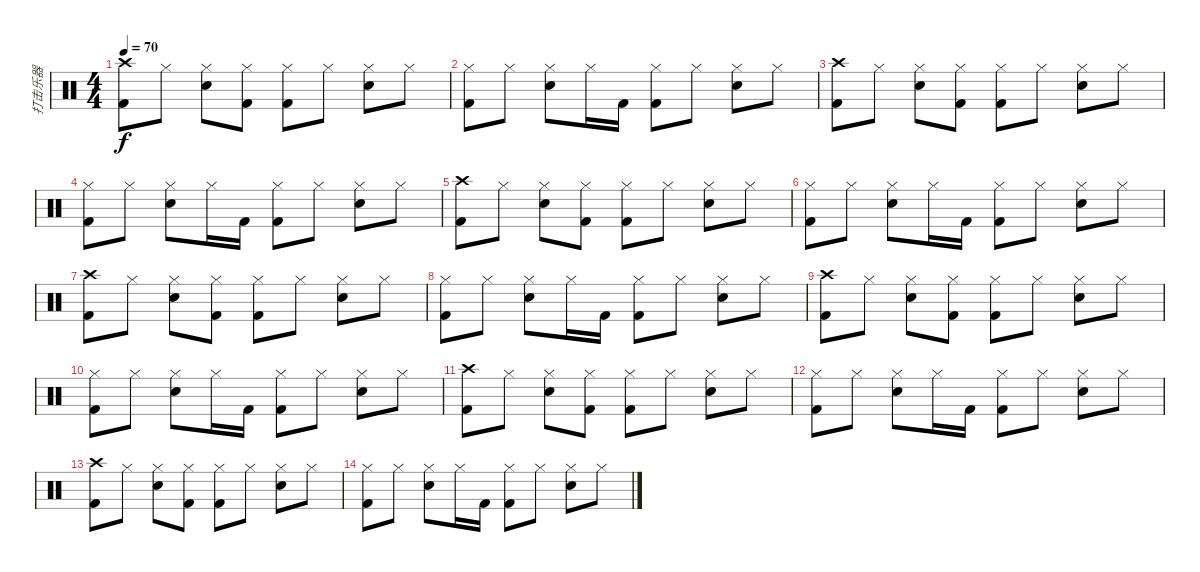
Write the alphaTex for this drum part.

\track ("打击乐器" "打击乐器") {instrument percussion}
\staff {score}
\articulation defaults
\ts (4 4)
\tempo 70
\clef neutral
\ks c
("Crash high (hit)" "Kick (hit) 2").8{dy f} "Hi-Hat (closed)".8 ("Hi-Hat (closed)" "Snare (hit) 2").8 ("Hi-Hat (closed)" "Kick (hit) 2").8 ("Hi-Hat (closed)" "Kick (hit) 2").8 "Hi-Hat (closed)".8 ("Hi-Hat (closed)" "Snare (hit) 2").8 "Hi-Hat (closed)".8 |
("Hi-Hat (closed)" "Kick (hit) 2").8 "Hi-Hat (closed)".8 ("Hi-Hat (closed)" "Snare (hit) 2").8 "Hi-Hat (closed)".16 "Kick (hit) 2".16 ("Hi-Hat (closed)" "Kick (hit) 2").8 "Hi-Hat (closed)".8 ("Hi-Hat (closed)" "Snare (hit) 2").8 "Hi-Hat (closed)".8 |
("Crash high (hit)" "Kick (hit) 2").8 "Hi-Hat (closed)".8 ("Hi-Hat (closed)" "Snare (hit) 2").8 ("Hi-Hat (closed)" "Kick (hit) 2").8 ("Hi-Hat (closed)" "Kick (hit) 2").8 "Hi-Hat (closed)".8 ("Hi-Hat (closed)" "Snare (hit) 2").8 "Hi-Hat (closed)".8 |
("Hi-Hat (closed)" "Kick (hit) 2").8 "Hi-Hat (closed)".8 ("Hi-Hat (closed)" "Snare (hit) 2").8 "Hi-Hat (closed)".16 "Kick (hit) 2".16 ("Hi-Hat (closed)" "Kick (hit) 2").8 "Hi-Hat (closed)".8 ("Hi-Hat (closed)" "Snare (hit) 2").8 "Hi-Hat (closed)".8 |
("Crash high (hit)" "Kick (hit) 2").8 "Hi-Hat (closed)".8 ("Hi-Hat (closed)" "Snare (hit) 2").8 ("Hi-Hat (closed)" "Kick (hit) 2").8 ("Hi-Hat (closed)" "Kick (hit) 2").8 "Hi-Hat (closed)".8 ("Hi-Hat (closed)" "Snare (hit) 2").8 "Hi-Hat (closed)".8 |
("Hi-Hat (closed)" "Kick (hit) 2").8 "Hi-Hat (closed)".8 ("Hi-Hat (closed)" "Snare (hit) 2").8 "Hi-Hat (closed)".16 "Kick (hit) 2".16 ("Hi-Hat (closed)" "Kick (hit) 2").8 "Hi-Hat (closed)".8 ("Hi-Hat (closed)" "Snare (hit) 2").8 "Hi-Hat (closed)".8 |
("Crash high (hit)" "Kick (hit) 2").8 "Hi-Hat (closed)".8 ("Hi-Hat (closed)" "Snare (hit) 2").8 ("Hi-Hat (closed)" "Kick (hit) 2").8 ("Hi-Hat (closed)" "Kick (hit) 2").8 "Hi-Hat (closed)".8 ("Hi-Hat (closed)" "Snare (hit) 2").8 "Hi-Hat (closed)".8 |
("Hi-Hat (closed)" "Kick (hit) 2").8 "Hi-Hat (closed)".8 ("Hi-Hat (closed)" "Snare (hit) 2").8 "Hi-Hat (closed)".16 "Kick (hit) 2".16 ("Hi-Hat (closed)" "Kick (hit) 2").8 "Hi-Hat (closed)".8 ("Hi-Hat (closed)" "Snare (hit) 2").8 "Hi-Hat (closed)".8 |
("Crash high (hit)" "Kick (hit) 2").8 "Hi-Hat (closed)".8 ("Hi-Hat (closed)" "Snare (hit) 2").8 ("Hi-Hat (closed)" "Kick (hit) 2").8 ("Hi-Hat (closed)" "Kick (hit) 2").8 "Hi-Hat (closed)".8 ("Hi-Hat (closed)" "Snare (hit) 2").8 "Hi-Hat (closed)".8 |
("Hi-Hat (closed)" "Kick (hit) 2").8 "Hi-Hat (closed)".8 ("Hi-Hat (closed)" "Snare (hit) 2").8 "Hi-Hat (closed)".16 "Kick (hit) 2".16 ("Hi-Hat (closed)" "Kick (hit) 2").8 "Hi-Hat (closed)".8 ("Hi-Hat (closed)" "Snare (hit) 2").8 "Hi-Hat (closed)".8 |
("Crash high (hit)" "Kick (hit) 2").8 "Hi-Hat (closed)".8 ("Hi-Hat (closed)" "Snare (hit) 2").8 ("Hi-Hat (closed)" "Kick (hit) 2").8 ("Hi-Hat (closed)" "Kick (hit) 2").8 "Hi-Hat (closed)".8 ("Hi-Hat (closed)" "Snare (hit) 2").8 "Hi-Hat (closed)".8 |
("Hi-Hat (closed)" "Kick (hit) 2").8 "Hi-Hat (closed)".8 ("Hi-Hat (closed)" "Snare (hit) 2").8 "Hi-Hat (closed)".16 "Kick (hit) 2".16 ("Hi-Hat (closed)" "Kick (hit) 2").8 "Hi-Hat (closed)".8 ("Hi-Hat (closed)" "Snare (hit) 2").8 "Hi-Hat (closed)".8 |
("Crash high (hit)" "Kick (hit) 2").8 "Hi-Hat (closed)".8 ("Hi-Hat (closed)" "Snare (hit) 2").8 ("Hi-Hat (closed)" "Kick (hit) 2").8 ("Hi-Hat (closed)" "Kick (hit) 2").8 "Hi-Hat (closed)".8 ("Hi-Hat (closed)" "Snare (hit) 2").8 "Hi-Hat (closed)".8 |
("Hi-Hat (closed)" "Kick (hit) 2").8 "Hi-Hat (closed)".8 ("Hi-Hat (closed)" "Snare (hit) 2").8 "Hi-Hat (closed)".16 "Kick (hit) 2".16 ("Hi-Hat (closed)" "Kick (hit) 2").8 "Hi-Hat (closed)".8 ("Hi-Hat (closed)" "Snare (hit) 2").8 "Hi-Hat (closed)".8
